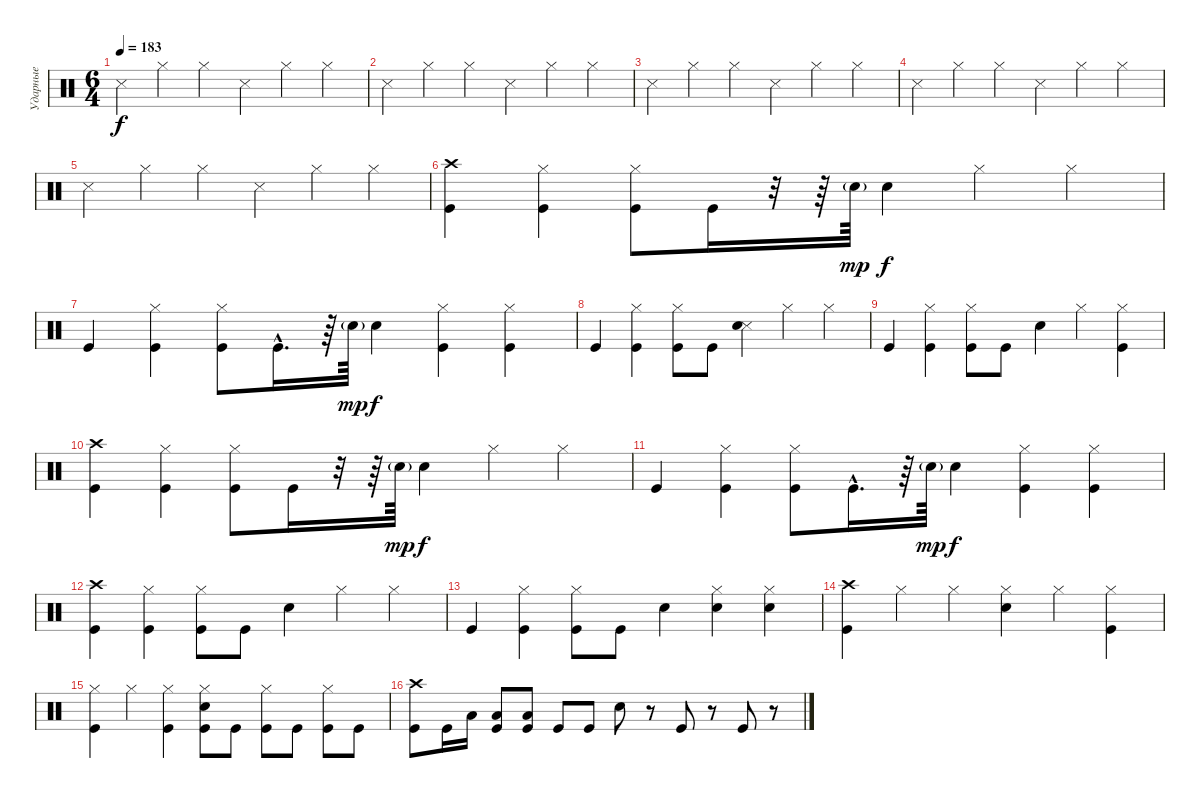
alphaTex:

\track ("Ударные" "Ударные") {instrument percussion}
\staff {score}
\articulation defaults
\ts (6 4)
\tempo 183
\clef neutral
\ks c "Snare (side stick) 3".4{dy f} "Hi-Hat (closed)".4 "Hi-Hat (closed)".4 "Snare (side stick) 3".4 "Hi-Hat (closed)".4 "Hi-Hat (closed)".4
|
"Snare (side stick) 3".4 "Hi-Hat (closed)".4 "Hi-Hat (closed)".4 "Snare (side stick) 3".4 "Hi-Hat (closed)".4 "Hi-Hat (closed)".4 |
"Snare (side stick) 3".4 "Hi-Hat (closed)".4 "Hi-Hat (closed)".4 "Snare (side stick) 3".4 "Hi-Hat (closed)".4 "Hi-Hat (closed)".4 |
"Snare (side stick) 3".4 "Hi-Hat (closed)".4 "Hi-Hat (closed)".4 "Snare (side stick) 3".4 "Hi-Hat (closed)".4 "Hi-Hat (closed)".4 |
"Snare (side stick) 3".4 "Hi-Hat (closed)".4 "Hi-Hat (closed)".4 "Snare (side stick) 3".4 "Hi-Hat (closed)".4 "Hi-Hat (closed)".4 |
("Crash high (hit)" "Kick (hit)").4 ("Hi-Hat (closed)" "Kick (hit)").4 ("Hi-Hat (closed)" "Kick (hit)").8 "Kick (hit)".16 r.32 r.64 "Electric Snare (hit)"{g}.64{dy mp} "Electric Snare (hit)".4{dy f} "Hi-Hat (closed)".4 "Hi-Hat (closed)".4 |
"Kick (hit)".4 ("Hi-Hat (closed)" "Kick (hit)").4 ("Hi-Hat (closed)" "Kick (hit)").8 "Kick (hit)"{hac}.16{d} r.64 "Electric Snare (hit)"{g}.64{dy mp} "Electric Snare (hit)".4{dy f} ("Hi-Hat (closed)" "Kick (hit)").4 ("Hi-Hat (closed)" "Kick (hit)").4 |
"Kick (hit)".4 ("Hi-Hat (closed)" "Kick (hit)").4 ("Hi-Hat (closed)" "Kick (hit)").8 "Kick (hit)".8 ("Snare (side stick) 3" "Electric Snare (hit)").4 "Hi-Hat (closed)".4 "Hi-Hat (closed)".4 |
"Kick (hit)".4 ("Hi-Hat (closed)" "Kick (hit)").4 ("Hi-Hat (closed)" "Kick (hit)").8 "Kick (hit)".8 "Electric Snare (hit)".4 "Hi-Hat (closed)".4 ("Hi-Hat (closed)" "Kick (hit)").4 |
("Crash high (hit)" "Kick (hit)").4 ("Hi-Hat (closed)" "Kick (hit)").4 ("Hi-Hat (closed)" "Kick (hit)").8 "Kick (hit)".16 r.32 r.64 "Electric Snare (hit)"{g}.64{dy mp} "Electric Snare (hit)".4{dy f} "Hi-Hat (closed)".4 "Hi-Hat (closed)".4 |
"Kick (hit)".4 ("Hi-Hat (closed)" "Kick (hit)").4 ("Hi-Hat (closed)" "Kick (hit)").8 "Kick (hit)"{hac}.16{d} r.64 "Electric Snare (hit)"{g}.64{dy mp} "Electric Snare (hit)".4{dy f} ("Hi-Hat (closed)" "Kick (hit)").4 ("Hi-Hat (closed)" "Kick (hit)").4 |
("Crash high (hit)" "Kick (hit)").4 ("Hi-Hat (closed)" "Kick (hit)").4 ("Hi-Hat (closed)" "Kick (hit)").8 "Kick (hit)".8 "Electric Snare (hit)".4 "Hi-Hat (closed)".4 "Hi-Hat (closed)".4 |
"Kick (hit)".4 ("Hi-Hat (closed)" "Kick (hit)").4 ("Hi-Hat (closed)" "Kick (hit)").8 "Kick (hit)".8 "Electric Snare (hit)".4 ("Hi-Hat (closed)" "Electric Snare (hit)").4 ("Hi-Hat (closed)" "Electric Snare (hit)").4 |
("Crash high (hit)" "Kick (hit)").4 "Hi-Hat (closed)".4 "Hi-Hat (closed)".4 ("Hi-Hat (closed)" "Electric Snare (hit)").4 "Hi-Hat (closed)".4 ("Hi-Hat (closed)" "Kick (hit)").4 |
("Hi-Hat (closed)" "Kick (hit)").4 "Hi-Hat (closed)".4 ("Hi-Hat (closed)" "Kick (hit)").4 ("Hi-Hat (closed)" "Electric Snare (hit)" "Kick (hit)").8 "Kick (hit)".8 ("Hi-Hat (closed)" "Kick (hit)").8 "Kick (hit)".8 ("Hi-Hat (closed)" "Kick (hit)").8 "Kick (hit)".8 |
("Crash high (hit)" "Kick (hit)").8 "Kick (hit)".16 "Low Tom (hit)".16 ("Low Tom (hit)" "Kick (hit)").8 ("Low Tom (hit)" "Kick (hit)").8 "Kick (hit)".8 "Kick (hit)".8 "Electric Snare (hit)".8 r.8 "Kick (hit)".8 r.8 "Kick (hit)".8 r.8
